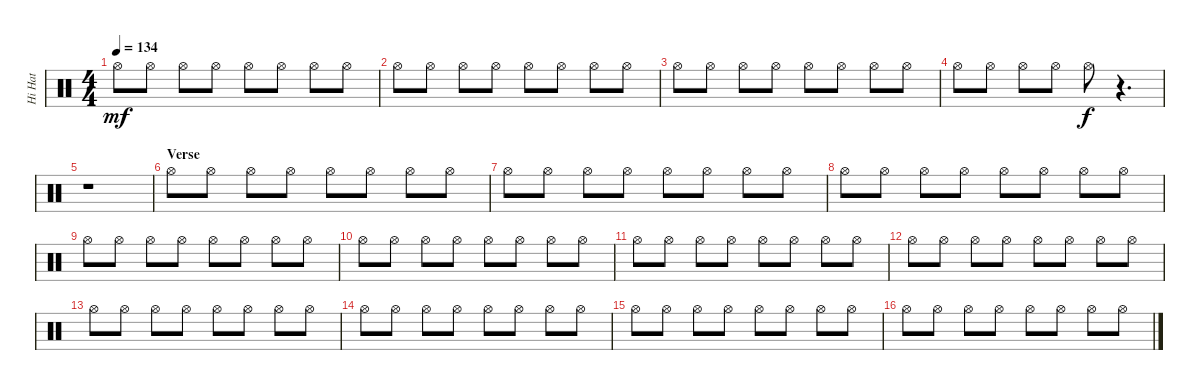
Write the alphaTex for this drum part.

\track ("Hi Hat" "Hi Hat") {instrument percussion}
\staff {score}
\articulation defaults
\ts (4 4)
\tempo 134
\clef neutral
\ks c "Hi-Hat (open)".8{dy mf} "Hi-Hat (open)".8 "Hi-Hat (open)".8 "Hi-Hat (open)".8 "Hi-Hat (open)".8 "Hi-Hat (open)".8 "Hi-Hat (open)".8 "Hi-Hat (open)".8
|
"Hi-Hat (open)".8 "Hi-Hat (open)".8 "Hi-Hat (open)".8 "Hi-Hat (open)".8 "Hi-Hat (open)".8 "Hi-Hat (open)".8 "Hi-Hat (open)".8 "Hi-Hat (open)".8 |
"Hi-Hat (open)".8 "Hi-Hat (open)".8 "Hi-Hat (open)".8 "Hi-Hat (open)".8 "Hi-Hat (open)".8 "Hi-Hat (open)".8 "Hi-Hat (open)".8 "Hi-Hat (open)".8 |
"Hi-Hat (open)".8 "Hi-Hat (open)".8 "Hi-Hat (open)".8 "Hi-Hat (open)".8 "Hi-Hat (open)".8{dy f} r.4{d} |
r.1 |
\section ("" "Verse")
"Hi-Hat (open)".8 "Hi-Hat (open)".8 "Hi-Hat (open)".8 "Hi-Hat (open)".8 "Hi-Hat (open)".8 "Hi-Hat (open)".8 "Hi-Hat (open)".8 "Hi-Hat (open)".8 |
"Hi-Hat (open)".8 "Hi-Hat (open)".8 "Hi-Hat (open)".8 "Hi-Hat (open)".8 "Hi-Hat (open)".8 "Hi-Hat (open)".8 "Hi-Hat (open)".8 "Hi-Hat (open)".8 |
"Hi-Hat (open)".8 "Hi-Hat (open)".8 "Hi-Hat (open)".8 "Hi-Hat (open)".8 "Hi-Hat (open)".8 "Hi-Hat (open)".8 "Hi-Hat (open)".8 "Hi-Hat (open)".8 |
"Hi-Hat (open)".8 "Hi-Hat (open)".8 "Hi-Hat (open)".8 "Hi-Hat (open)".8 "Hi-Hat (open)".8 "Hi-Hat (open)".8 "Hi-Hat (open)".8 "Hi-Hat (open)".8 |
"Hi-Hat (open)".8 "Hi-Hat (open)".8 "Hi-Hat (open)".8 "Hi-Hat (open)".8 "Hi-Hat (open)".8 "Hi-Hat (open)".8 "Hi-Hat (open)".8 "Hi-Hat (open)".8 |
"Hi-Hat (open)".8 "Hi-Hat (open)".8 "Hi-Hat (open)".8 "Hi-Hat (open)".8 "Hi-Hat (open)".8 "Hi-Hat (open)".8 "Hi-Hat (open)".8 "Hi-Hat (open)".8 |
"Hi-Hat (open)".8 "Hi-Hat (open)".8 "Hi-Hat (open)".8 "Hi-Hat (open)".8 "Hi-Hat (open)".8 "Hi-Hat (open)".8 "Hi-Hat (open)".8 "Hi-Hat (open)".8 |
"Hi-Hat (open)".8 "Hi-Hat (open)".8 "Hi-Hat (open)".8 "Hi-Hat (open)".8 "Hi-Hat (open)".8 "Hi-Hat (open)".8 "Hi-Hat (open)".8 "Hi-Hat (open)".8 |
"Hi-Hat (open)".8 "Hi-Hat (open)".8 "Hi-Hat (open)".8 "Hi-Hat (open)".8 "Hi-Hat (open)".8 "Hi-Hat (open)".8 "Hi-Hat (open)".8 "Hi-Hat (open)".8 |
"Hi-Hat (open)".8 "Hi-Hat (open)".8 "Hi-Hat (open)".8 "Hi-Hat (open)".8 "Hi-Hat (open)".8 "Hi-Hat (open)".8 "Hi-Hat (open)".8 "Hi-Hat (open)".8 |
"Hi-Hat (open)".8 "Hi-Hat (open)".8 "Hi-Hat (open)".8 "Hi-Hat (open)".8 "Hi-Hat (open)".8 "Hi-Hat (open)".8 "Hi-Hat (open)".8 "Hi-Hat (open)".8
